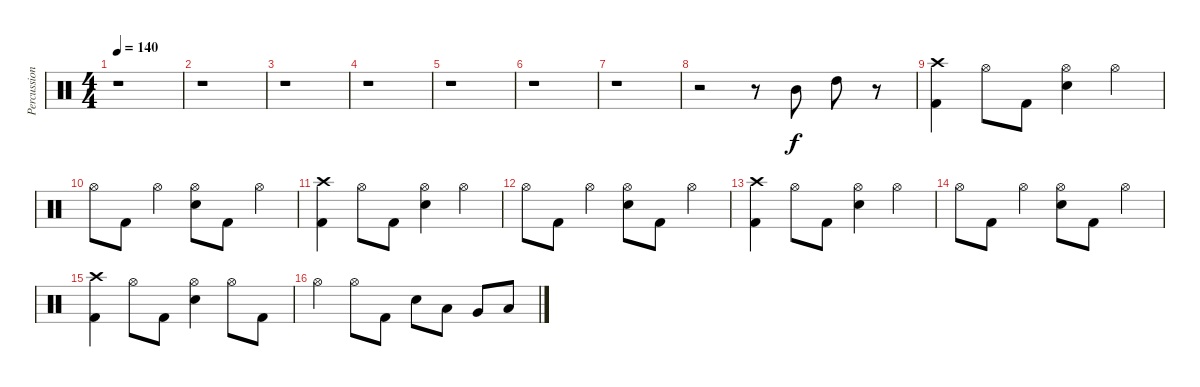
\track ("Percussion" "Percussion") {instrument percussion}
\staff {score}
\articulation defaults
\ts (4 4)
\tempo 140
\clef neutral
\ks c
r.1{dy f} |
r.1 |
r.1 |
r.1 |
r.1 |
r.1 |
r.1 |
r.2 r.8 "Mid Tom (hit)".8 "High Tom (hit)".8 r.8 |
("Crash high (hit)" "Kick (hit) 2").4 "Hi-Hat (open)".8 "Kick (hit) 2".8 ("Hi-Hat (open)" "Snare (hit) 2").4 "Hi-Hat (open)".4 |
"Hi-Hat (open)".8 "Kick (hit) 2".8 "Hi-Hat (open)".4 ("Hi-Hat (open)" "Snare (hit) 2").8 "Kick (hit) 2".8 "Hi-Hat (open)".4 |
("Crash high (hit)" "Kick (hit) 2").4 "Hi-Hat (open)".8 "Kick (hit) 2".8 ("Hi-Hat (open)" "Snare (hit) 2").4 "Hi-Hat (open)".4 |
"Hi-Hat (open)".8 "Kick (hit) 2".8 "Hi-Hat (open)".4 ("Hi-Hat (open)" "Snare (hit) 2").8 "Kick (hit) 2".8 "Hi-Hat (open)".4 |
("Crash high (hit)" "Kick (hit) 2").4 "Hi-Hat (open)".8 "Kick (hit) 2".8 ("Hi-Hat (open)" "Snare (hit) 2").4 "Hi-Hat (open)".4 |
"Hi-Hat (open)".8 "Kick (hit) 2".8 "Hi-Hat (open)".4 ("Hi-Hat (open)" "Snare (hit) 2").8 "Kick (hit) 2".8 "Hi-Hat (open)".4 |
("Crash high (hit)" "Kick (hit) 2").4 "Hi-Hat (open)".8 "Kick (hit) 2".8 ("Hi-Hat (open)" "Snare (hit) 2").4 "Hi-Hat (open)".8 "Kick (hit) 2".8 |
"Hi-Hat (open)".4 "Hi-Hat (open)".8 "Kick (hit) 2".8 "Snare (hit) 2".8 "Low Tom (hit)".8 "Very Low Tom (hit)".8 "Low Floor Tom (hit)".8
